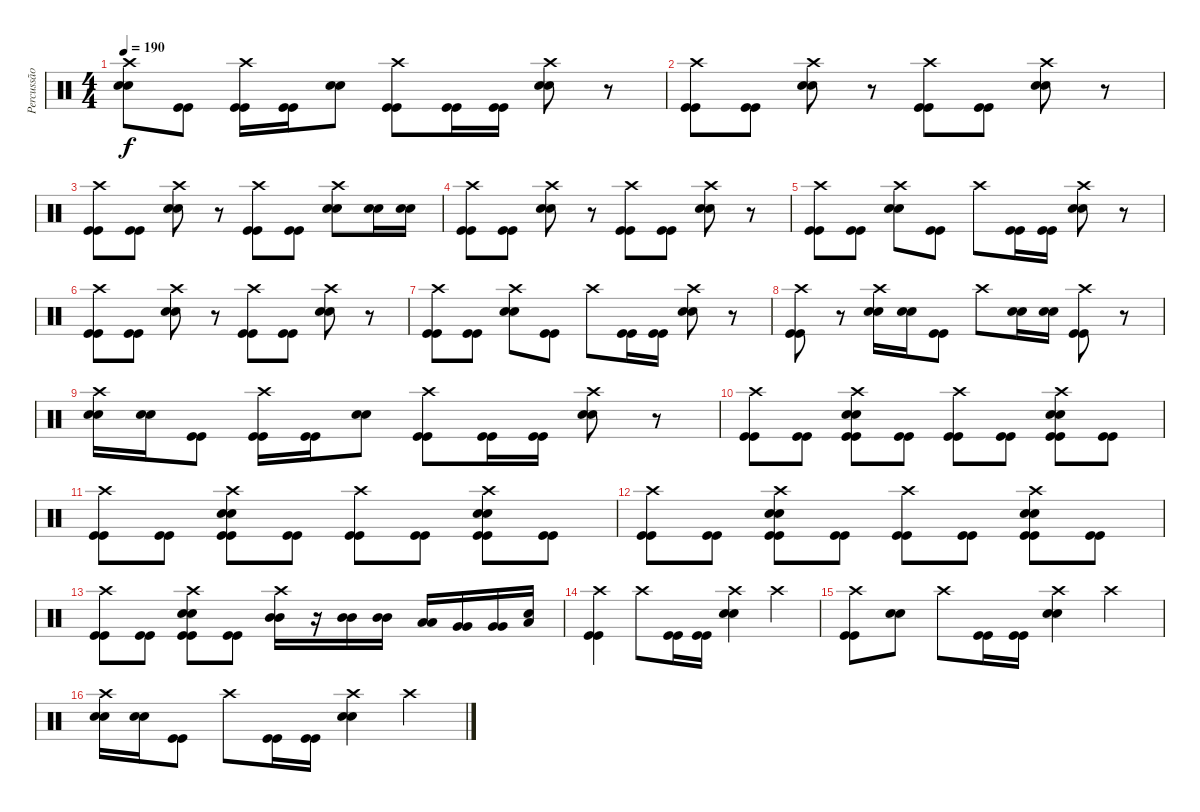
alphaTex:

\track ("Percussão" "Percussão") {instrument percussion}
\staff {score}
\articulation defaults
\ts (4 4)
\tempo 190
\clef neutral
\ks c
("Crash high (hit)" "Snare (hit) 2" "Snare (hit) 2").8{dy f} ("Kick (hit)" "Kick (hit)").8 ("Crash high (hit)" "Kick (hit)" "Kick (hit)").16 ("Kick (hit)" "Kick (hit)").16 ("Snare (hit) 2" "Snare (hit) 2").8 ("Crash high (hit)" "Kick (hit)" "Kick (hit)").8 ("Kick (hit)" "Kick (hit)").16 ("Kick (hit)" "Kick (hit)").16 ("Crash high (hit)" "Snare (hit) 2" "Snare (hit) 2").8 r.8 |
("Crash high (hit)" "Kick (hit)" "Kick (hit)").8 ("Kick (hit)" "Kick (hit)").8 ("Crash high (hit)" "Snare (hit) 2" "Snare (hit) 2").8 r.8 ("Crash high (hit)" "Kick (hit)" "Kick (hit)").8 ("Kick (hit)" "Kick (hit)").8 ("Crash high (hit)" "Snare (hit) 2" "Snare (hit) 2").8 r.8 |
("Crash high (hit)" "Kick (hit)" "Kick (hit)").8 ("Kick (hit)" "Kick (hit)").8 ("Crash high (hit)" "Snare (hit) 2" "Snare (hit) 2").8 r.8 ("Crash high (hit)" "Kick (hit)" "Kick (hit)").8 ("Kick (hit)" "Kick (hit)").8 ("Crash high (hit)" "Snare (hit) 2" "Snare (hit) 2").8 ("Snare (hit) 2" "Snare (hit) 2").16 ("Snare (hit) 2" "Snare (hit) 2").16 |
("Crash high (hit)" "Kick (hit)" "Kick (hit)").8 ("Kick (hit)" "Kick (hit)").8 ("Crash high (hit)" "Snare (hit) 2" "Snare (hit) 2").8 r.8 ("Crash high (hit)" "Kick (hit)" "Kick (hit)").8 ("Kick (hit)" "Kick (hit)").8 ("Crash high (hit)" "Snare (hit) 2" "Snare (hit) 2").8 r.8 |
("Crash high (hit)" "Kick (hit)" "Kick (hit)").8 ("Kick (hit)" "Kick (hit)").8 ("Crash high (hit)" "Snare (hit) 2" "Snare (hit) 2").8 ("Kick (hit)" "Kick (hit)").8 "Crash high (hit)".8 ("Kick (hit)" "Kick (hit)").16 ("Kick (hit)" "Kick (hit)").16 ("Crash high (hit)" "Snare (hit) 2" "Snare (hit) 2").8 r.8 |
("Crash high (hit)" "Kick (hit)" "Kick (hit)").8 ("Kick (hit)" "Kick (hit)").8 ("Crash high (hit)" "Snare (hit) 2" "Snare (hit) 2").8 r.8 ("Crash high (hit)" "Kick (hit)" "Kick (hit)").8 ("Kick (hit)" "Kick (hit)").8 ("Crash high (hit)" "Snare (hit) 2" "Snare (hit) 2").8 r.8 |
("Crash high (hit)" "Kick (hit)" "Kick (hit)").8 ("Kick (hit)" "Kick (hit)").8 ("Crash high (hit)" "Snare (hit) 2" "Snare (hit) 2").8 ("Kick (hit)" "Kick (hit)").8 "Crash high (hit)".8 ("Kick (hit)" "Kick (hit)").16 ("Kick (hit)" "Kick (hit)").16 ("Crash high (hit)" "Snare (hit) 2" "Snare (hit) 2").8 r.8 |
("Crash high (hit)" "Kick (hit)" "Kick (hit)").8 r.8 ("Crash high (hit)" "Snare (hit) 2" "Snare (hit) 2").16 ("Snare (hit) 2" "Snare (hit) 2").16 ("Kick (hit)" "Kick (hit)").8 "Crash high (hit)".8 ("Snare (hit) 2" "Snare (hit) 2").16 ("Snare (hit) 2" "Snare (hit) 2").16 ("Crash high (hit)" "Kick (hit)" "Kick (hit)").8 r.8 |
("Crash high (hit)" "Snare (hit) 2" "Snare (hit) 2").16 ("Snare (hit) 2" "Snare (hit) 2").16 ("Kick (hit)" "Kick (hit)").8 ("Crash high (hit)" "Kick (hit)" "Kick (hit)").16 ("Kick (hit)" "Kick (hit)").16 ("Snare (hit) 2" "Snare (hit) 2").8 ("Crash high (hit)" "Kick (hit)" "Kick (hit)").8 ("Kick (hit)" "Kick (hit)").16 ("Kick (hit)" "Kick (hit)").16 ("Crash high (hit)" "Snare (hit) 2" "Snare (hit) 2").8 r.8 |
("Crash high (hit)" "Kick (hit)" "Kick (hit)").8 ("Kick (hit)" "Kick (hit)").8 ("Crash high (hit)" "Snare (hit) 2" "Snare (hit) 2" "Kick (hit)" "Kick (hit)").8 ("Kick (hit)" "Kick (hit)").8 ("Crash high (hit)" "Kick (hit)" "Kick (hit)").8 ("Kick (hit)" "Kick (hit)").8 ("Crash high (hit)" "Snare (hit) 2" "Snare (hit) 2" "Kick (hit)" "Kick (hit)").8 ("Kick (hit)" "Kick (hit)").8 |
("Crash high (hit)" "Kick (hit)" "Kick (hit)").8 ("Kick (hit)" "Kick (hit)").8 ("Crash high (hit)" "Snare (hit) 2" "Snare (hit) 2" "Kick (hit)" "Kick (hit)").8 ("Kick (hit)" "Kick (hit)").8 ("Crash high (hit)" "Kick (hit)" "Kick (hit)").8 ("Kick (hit)" "Kick (hit)").8 ("Crash high (hit)" "Snare (hit) 2" "Snare (hit) 2" "Kick (hit)" "Kick (hit)").8 ("Kick (hit)" "Kick (hit)").8 |
("Crash high (hit)" "Kick (hit)" "Kick (hit)").8 ("Kick (hit)" "Kick (hit)").8 ("Crash high (hit)" "Snare (hit) 2" "Snare (hit) 2" "Kick (hit)" "Kick (hit)").8 ("Kick (hit)" "Kick (hit)").8 ("Crash high (hit)" "Kick (hit)" "Kick (hit)").8 ("Kick (hit)" "Kick (hit)").8 ("Crash high (hit)" "Snare (hit) 2" "Snare (hit) 2" "Kick (hit)" "Kick (hit)").8 ("Kick (hit)" "Kick (hit)").8 |
("Crash high (hit)" "Kick (hit)" "Kick (hit)").8 ("Kick (hit)" "Kick (hit)").8 ("Crash high (hit)" "Snare (hit) 2" "Snare (hit) 2" "Kick (hit)" "Kick (hit)").8 ("Kick (hit)" "Kick (hit)").8 ("Crash high (hit)" "Mid Tom (hit)" "Mid Tom (hit)").16 r.16 ("Mid Tom (hit)" "Mid Tom (hit)").16 ("Mid Tom (hit)" "Mid Tom (hit)").16 ("Low Tom (hit)" "Low Tom (hit)").16 ("Very Low Tom (hit)" "Very Low Tom (hit)").16 ("Very Low Tom (hit)" "Very Low Tom (hit)").16 ("Snare (hit) 2" "Low Floor Tom (hit)").16 |
("Crash high (hit)" "Kick (hit)" "Kick (hit)").4 "Crash high (hit)".8 ("Kick (hit)" "Kick (hit)").16 ("Kick (hit)" "Kick (hit)").16 ("Crash high (hit)" "Snare (hit) 2" "Snare (hit) 2").4 "Crash high (hit)".4 |
("Crash high (hit)" "Kick (hit)" "Kick (hit)").8 ("Snare (hit) 2" "Snare (hit) 2").8 "Crash high (hit)".8 ("Kick (hit)" "Kick (hit)").16 ("Kick (hit)" "Kick (hit)").16 ("Crash high (hit)" "Snare (hit) 2" "Snare (hit) 2").4 "Crash high (hit)".4 |
("Crash high (hit)" "Snare (hit) 2" "Snare (hit) 2").16 ("Snare (hit) 2" "Snare (hit) 2").16 ("Kick (hit)" "Kick (hit)").8 "Crash high (hit)".8 ("Kick (hit)" "Kick (hit)").16 ("Kick (hit)" "Kick (hit)").16 ("Crash high (hit)" "Snare (hit) 2" "Snare (hit) 2").4 "Crash high (hit)".4
